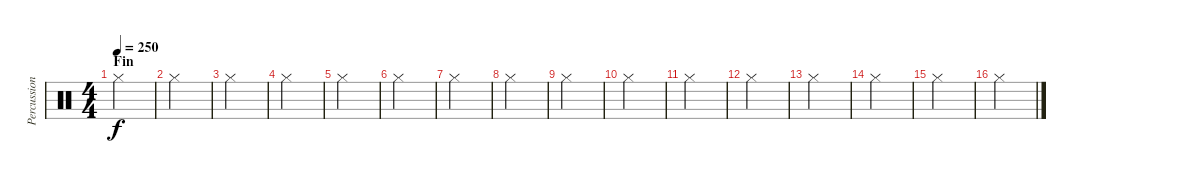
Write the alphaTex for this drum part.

\track ("Percussions" "Percussion") {instrument percussion}
\staff {score}
\articulation defaults
\ts (4 4)
\section ("" "Fin")
\tempo 250
\clef neutral
\ks c "Hi-Hat (closed)".4{dy f}
|
"Hi-Hat (closed)".4 |
"Hi-Hat (closed)".4 |
"Hi-Hat (closed)".4 |
"Hi-Hat (closed)".4 |
"Hi-Hat (closed)".4 |
"Hi-Hat (closed)".4 |
"Hi-Hat (closed)".4 |
"Hi-Hat (closed)".4 |
"Hi-Hat (closed)".4 |
"Hi-Hat (closed)".4 |
"Hi-Hat (closed)".4 |
"Hi-Hat (closed)".4 |
"Hi-Hat (closed)".4 |
"Hi-Hat (closed)".4 |
"Hi-Hat (closed)".4
